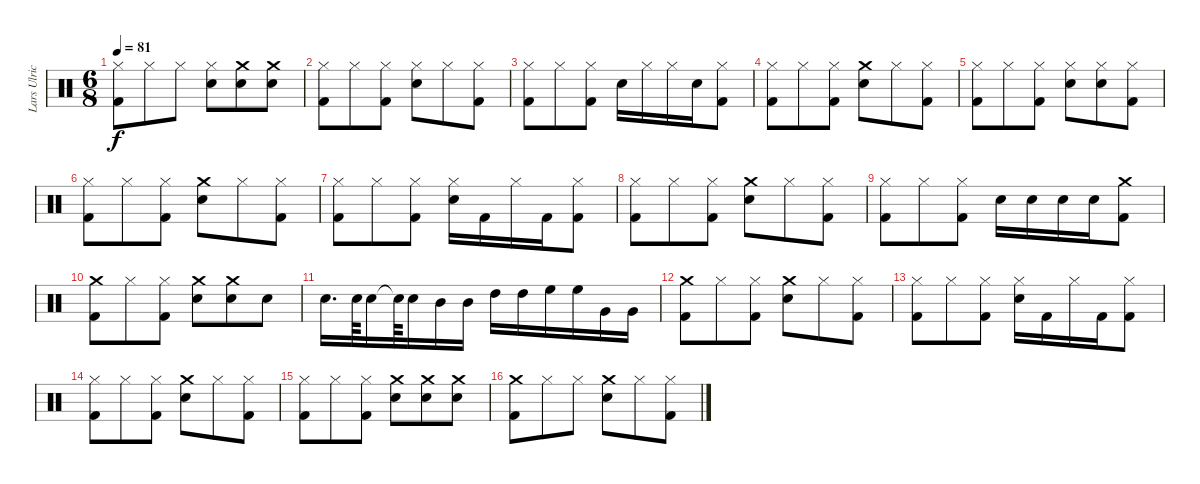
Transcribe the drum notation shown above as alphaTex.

\track ("Lars Ulrich (Drums)" "Lars Ulric") {instrument percussion}
\staff {score}
\articulation defaults
\ts (6 8)
\tempo 81
\clef neutral
\ks c
("Hi-Hat (closed)" "Kick (hit) 2").8{dy f} "Hi-Hat (closed)".8 "Hi-Hat (closed)".8 ("Snare (hit) 2" "Hi-Hat (closed)").8 ("Crash medium (hit)" "Snare (hit) 2").8 ("Crash medium (hit)" "Snare (hit) 2").8 |
("Kick (hit) 2" "Hi-Hat (closed)").8 "Hi-Hat (closed)".8 ("Kick (hit) 2" "Hi-Hat (closed)").8 ("Snare (hit) 2" "Hi-Hat (closed)").8 "Hi-Hat (closed)".8 ("Kick (hit) 2" "Hi-Hat (closed)").8 |
("Hi-Hat (closed)" "Kick (hit) 2").8 "Hi-Hat (closed)".8 ("Kick (hit) 2" "Hi-Hat (closed)").8 "Snare (hit) 2".16 "Hi-Hat (closed)".16 "Hi-Hat (closed)".16 "Snare (hit) 2".16 ("Hi-Hat (closed)" "Kick (hit) 2").8 |
("Hi-Hat (closed)" "Kick (hit) 2").8 "Hi-Hat (closed)".8 ("Kick (hit) 2" "Hi-Hat (closed)").8 ("Crash medium (hit)" "Snare (hit) 2").8 "Hi-Hat (closed)".8 ("Kick (hit) 2" "Hi-Hat (closed)").8 |
("Hi-Hat (closed)" "Kick (hit) 2").8 "Hi-Hat (closed)".8 ("Kick (hit) 2" "Hi-Hat (closed)").8 ("Hi-Hat (closed)" "Snare (hit) 2").8 ("Hi-Hat (closed)" "Snare (hit) 2").8 ("Kick (hit) 2" "Hi-Hat (closed)").8 |
("Hi-Hat (closed)" "Kick (hit) 2").8 "Hi-Hat (closed)".8 ("Kick (hit) 2" "Hi-Hat (closed)").8 ("Crash medium (hit)" "Snare (hit) 2").8 "Hi-Hat (closed)".8 ("Kick (hit) 2" "Hi-Hat (closed)").8 |
("Hi-Hat (closed)" "Kick (hit) 2").8 "Hi-Hat (closed)".8 ("Kick (hit) 2" "Hi-Hat (closed)").8 ("Snare (hit) 2" "Hi-Hat (closed)").16 "Kick (hit) 2".16 "Hi-Hat (closed)".16 "Kick (hit) 2".16 ("Kick (hit) 2" "Hi-Hat (closed)").8 |
("Kick (hit) 2" "Hi-Hat (closed)").8 "Hi-Hat (closed)".8 ("Kick (hit) 2" "Hi-Hat (closed)").8 ("Crash medium (hit)" "Snare (hit) 2").8 "Hi-Hat (closed)".8 ("Hi-Hat (closed)" "Kick (hit) 2").8 |
("Kick (hit) 2" "Hi-Hat (closed)").8 "Hi-Hat (closed)".8 ("Kick (hit) 2" "Hi-Hat (closed)").8 "Snare (hit) 2".16 "Snare (hit) 2".16 "Snare (hit) 2".16 "Snare (hit) 2".16 ("Crash medium (hit)" "Kick (hit) 2").8 |
("Kick (hit) 2" "Crash medium (hit)").8 "Hi-Hat (closed)".8 ("Kick (hit) 2" "Hi-Hat (closed)").8 ("Crash medium (hit)" "Snare (hit) 2").8 ("Crash medium (hit)" "Snare (hit) 2").8 "Snare (hit) 2".8 |
"Snare (hit) 2".16{d} "Snare (hit) 2".64 "Snare (hit) 2".16 "Snare (hit)"{t}.64 "Snare (hit) 2".16 "Mid Tom (hit)".16 "Mid Tom (hit)".16 "High Tom (hit)".16 "High Tom (hit)".16 "High Floor Tom (hit)".16 "High Floor Tom (hit)".16 "Very Low Tom (hit)".16 "Very Low Tom (hit)".16 |
("Kick (hit) 2" "Crash medium (hit)").8 "Hi-Hat (closed)".8 ("Kick (hit) 2" "Hi-Hat (closed)").8 ("Crash medium (hit)" "Snare (hit) 2").8 "Hi-Hat (closed)".8 ("Kick (hit) 2" "Hi-Hat (closed)").8 |
("Hi-Hat (closed)" "Kick (hit) 2").8 "Hi-Hat (closed)".8 ("Kick (hit) 2" "Hi-Hat (closed)").8 ("Snare (hit) 2" "Hi-Hat (closed)").16 "Kick (hit) 2".16 "Hi-Hat (closed)".16 "Kick (hit) 2".16 ("Kick (hit) 2" "Hi-Hat (closed)").8 |
("Hi-Hat (closed)" "Kick (hit) 2").8 "Hi-Hat (closed)".8 ("Hi-Hat (closed)" "Kick (hit) 2").8 ("Crash medium (hit)" "Snare (hit) 2").8 "Hi-Hat (closed)".8 ("Hi-Hat (closed)" "Kick (hit) 2").8 |
("Hi-Hat (closed)" "Kick (hit) 2").8 "Hi-Hat (closed)".8 ("Kick (hit) 2" "Hi-Hat (closed)").8 ("Crash medium (hit)" "Snare (hit) 2").8 ("Crash medium (hit)" "Snare (hit) 2").8 ("Crash medium (hit)" "Snare (hit) 2").8 |
("Crash medium (hit)" "Kick (hit) 2").8 "Hi-Hat (closed)".8 "Hi-Hat (closed)".8 ("Crash medium (hit)" "Snare (hit) 2").8 "Hi-Hat (closed)".8 ("Kick (hit) 2" "Hi-Hat (closed)").8
